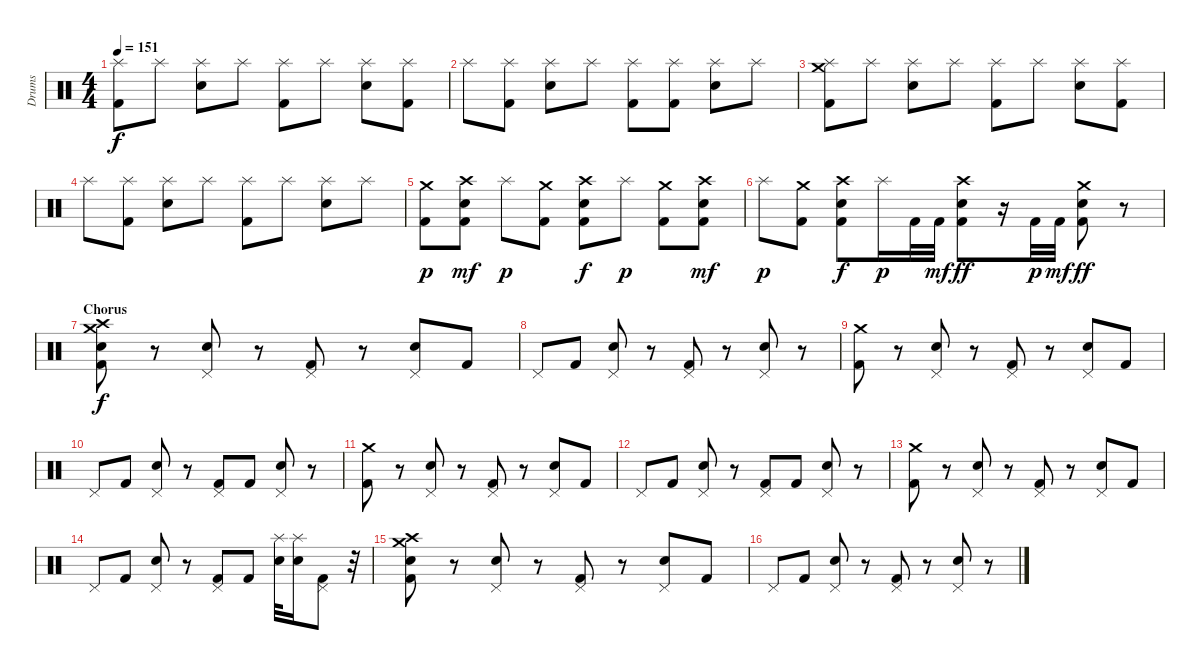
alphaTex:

\track ("Drums" "Drums") {instrument percussion}
\staff {score}
\articulation defaults
\ts (4 4)
\tempo 151
\clef neutral
\ks c
("Kick (hit) 2" "Splash (hit)").8{dy f} "Splash (hit)".8 ("Splash (hit)" "Electric Snare (hit)").8 "Splash (hit)".8 ("Kick (hit) 2" "Splash (hit)").8 "Splash (hit)".8 ("Splash (hit)" "Electric Snare (hit)").8 ("Kick (hit) 2" "Splash (hit)").8 |
"Splash (hit)".8 ("Kick (hit) 2" "Splash (hit)").8 ("Splash (hit)" "Electric Snare (hit)").8 "Splash (hit)".8 ("Kick (hit) 2" "Splash (hit)").8 ("Kick (hit) 2" "Splash (hit)").8 ("Splash (hit)" "Electric Snare (hit)").8 "Splash (hit)".8 |
("Kick (hit) 2" "Splash (hit)" "Crash medium (hit)").8 "Splash (hit)".8 ("Splash (hit)" "Electric Snare (hit)").8 "Splash (hit)".8 ("Kick (hit) 2" "Splash (hit)").8 "Splash (hit)".8 ("Splash (hit)" "Electric Snare (hit)").8 ("Kick (hit) 2" "Splash (hit)").8 |
"Splash (hit)".8 ("Kick (hit) 2" "Splash (hit)").8 ("Splash (hit)" "Electric Snare (hit)").8 "Splash (hit)".8 ("Kick (hit) 2" "Splash (hit)").8 "Splash (hit)".8 ("Splash (hit)" "Electric Snare (hit)").8 "Splash (hit)".8 |
("Kick (hit) 2" "Crash medium (hit)").8{dy p} ("Kick (hit) 2" "Electric Snare (hit)" "Crash high (hit)").8{dy mf} "Splash (hit)".8{dy p} ("Kick (hit) 2" "Crash medium (hit)").8 ("Kick (hit) 2" "Electric Snare (hit)" "Crash high (hit)").8{dy f} "Splash (hit)".8{dy p} ("Kick (hit) 2" "Crash medium (hit)").8 ("Kick (hit) 2" "Electric Snare (hit)" "Crash high (hit)").8{dy mf} |
"Splash (hit)".8{dy p} ("Kick (hit) 2" "Crash medium (hit)").8 ("Kick (hit) 2" "Electric Snare (hit)" "Crash high (hit)").8{dy f} "Splash (hit)".16{dy p} "Kick (hit) 2".32 "Kick (hit) 2".32{dy mf} ("Kick (hit) 2" "Electric Snare (hit)" "Crash high (hit)").8{dy ff} r.16 "Kick (hit) 2".32{dy p} "Kick (hit) 2".32{dy mf} ("Kick (hit) 2" "Electric Snare (hit)" "Crash medium (hit)").8{dy ff} r.8 |
\section ("" "Chorus")
("Kick (hit) 2" "Crash medium (hit)" "Electric Snare (hit)" "Crash high (hit)").8{dy f} r.8 ("Pedal Hi-Hat (hit)" "Electric Snare (hit)").8 r.8 ("Pedal Hi-Hat (hit)" "Kick (hit) 2").8 r.8 ("Pedal Hi-Hat (hit)" "Electric Snare (hit)").8 "Kick (hit) 2".8 |
"Pedal Hi-Hat (hit)".8 "Kick (hit) 2".8 ("Pedal Hi-Hat (hit)" "Electric Snare (hit)").8 r.8 ("Pedal Hi-Hat (hit)" "Kick (hit) 2").8 r.8 ("Pedal Hi-Hat (hit)" "Electric Snare (hit)").8 r.8 |
("Kick (hit) 2" "Crash medium (hit)").8 r.8 ("Pedal Hi-Hat (hit)" "Electric Snare (hit)").8 r.8 ("Pedal Hi-Hat (hit)" "Kick (hit) 2").8 r.8 ("Pedal Hi-Hat (hit)" "Electric Snare (hit)").8 "Kick (hit) 2".8 |
"Pedal Hi-Hat (hit)".8 "Kick (hit) 2".8 ("Pedal Hi-Hat (hit)" "Electric Snare (hit)").8 r.8 ("Pedal Hi-Hat (hit)" "Kick (hit) 2").8 "Kick (hit) 2".8 ("Pedal Hi-Hat (hit)" "Electric Snare (hit)").8 r.8 |
("Kick (hit) 2" "Crash medium (hit)").8 r.8 ("Pedal Hi-Hat (hit)" "Electric Snare (hit)").8 r.8 ("Pedal Hi-Hat (hit)" "Kick (hit) 2").8 r.8 ("Pedal Hi-Hat (hit)" "Electric Snare (hit)").8 "Kick (hit) 2".8 |
"Pedal Hi-Hat (hit)".8 "Kick (hit) 2".8 ("Pedal Hi-Hat (hit)" "Electric Snare (hit)").8 r.8 ("Pedal Hi-Hat (hit)" "Kick (hit) 2").8 "Kick (hit) 2".8 ("Pedal Hi-Hat (hit)" "Electric Snare (hit)").8 r.8 |
("Kick (hit) 2" "Crash medium (hit)").8 r.8 ("Pedal Hi-Hat (hit)" "Electric Snare (hit)").8 r.8 ("Pedal Hi-Hat (hit)" "Kick (hit) 2").8 r.8 ("Pedal Hi-Hat (hit)" "Electric Snare (hit)").8 "Kick (hit) 2".8 |
"Pedal Hi-Hat (hit)".8 "Kick (hit) 2".8 ("Pedal Hi-Hat (hit)" "Electric Snare (hit)").8 r.8 ("Pedal Hi-Hat (hit)" "Kick (hit) 2").8 "Kick (hit) 2".8 ("Splash (hit)" "Electric Snare (hit)").32 ("Splash (hit)" "Electric Snare (hit)").16 ("Pedal Hi-Hat (hit)" "Kick (hit) 2").8 r.32 |
("Kick (hit) 2" "Crash medium (hit)" "Electric Snare (hit)" "Crash high (hit)").8 r.8 ("Pedal Hi-Hat (hit)" "Electric Snare (hit)").8 r.8 ("Pedal Hi-Hat (hit)" "Kick (hit) 2").8 r.8 ("Pedal Hi-Hat (hit)" "Electric Snare (hit)").8 "Kick (hit) 2".8 |
"Pedal Hi-Hat (hit)".8 "Kick (hit) 2".8 ("Pedal Hi-Hat (hit)" "Electric Snare (hit)").8 r.8 ("Pedal Hi-Hat (hit)" "Kick (hit) 2").8 r.8 ("Pedal Hi-Hat (hit)" "Electric Snare (hit)").8 r.8
